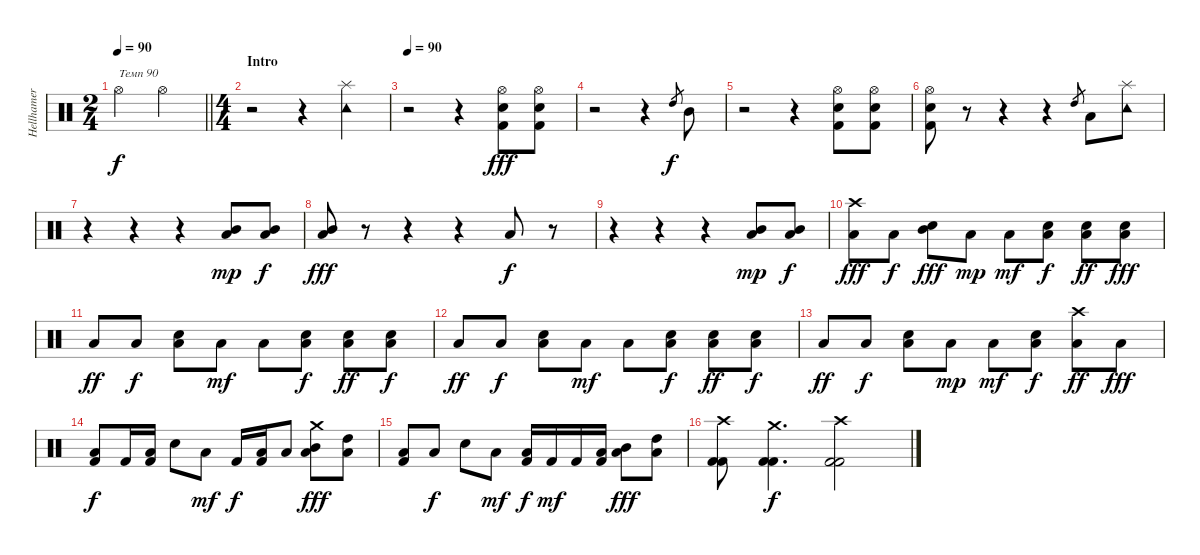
\track ("Hellhamer" "Hellhamer") {instrument percussion}
\staff {score}
\articulation defaults
\ts (2 4)
\tempo 90
\clef neutral
\barLineRight lightlight
\ks c "Hi-Hat (open)".4{txt "Темп 90" dy f} "Hi-Hat (open)".4
|
\ts (4 4)
\section ("" "Intro")
r.2 r.4 ("Splash (hit)" "Tambourine (hit)").4 |
\tempo 90
r.2 r.4 ("Hi-Hat (open)" "Electric Snare (hit)" "Kick (hit) 2").8{dy fff} ("Hi-Hat (open)" "Electric Snare (hit)" "Kick (hit) 2").8 |
r.2 r.4 "High Tom (hit)".8{gr dy f} "Mid Tom (hit)".8 |
r.2 r.4 ("Hi-Hat (open)" "Electric Snare (hit)" "Kick (hit) 2").8 ("Hi-Hat (open)" "Electric Snare (hit)" "Kick (hit) 2").8 |
("Hi-Hat (open)" "Electric Snare (hit)" "Kick (hit) 2").8 r.8 r.4 r.4 "High Tom (hit)".8{gr} "Low Tom (hit)".8 ("Splash (hit)" "Tambourine (hit)").8 |
r.4 r.4 r.4 ("Mid Tom (hit)" "Low Tom (hit)").8{dy mp} ("Mid Tom (hit)" "Low Tom (hit)").8{dy f} |
("Mid Tom (hit)" "Low Tom (hit)").8{dy fff} r.8 r.4 r.4 "Low Tom (hit)".8{dy f} r.8 |
r.4 r.4 r.4 ("Mid Tom (hit)" "Low Tom (hit)").8{dy mp} ("Mid Tom (hit)" "Low Tom (hit)").8{dy f} |
("Crash high (hit)" "Low Tom (hit)").8{dy fff} "Low Tom (hit)".8{dy f} ("Electric Snare (hit)" "Mid Tom (hit)").8{dy fff} "Low Tom (hit)".8{dy mp} "Low Tom (hit)".8{dy mf} ("Electric Snare (hit)" "Low Tom (hit)").8{dy f} ("Electric Snare (hit)" "Low Tom (hit)").8{dy ff} ("Electric Snare (hit)" "Low Tom (hit)").8{dy fff} |
"Low Tom (hit)".8{dy ff} "Low Tom (hit)".8{dy f} ("Electric Snare (hit)" "Low Tom (hit)").8 "Low Tom (hit)".8{dy mf} "Low Tom (hit)".8 ("Electric Snare (hit)" "Low Tom (hit)").8{dy f} ("Electric Snare (hit)" "Low Tom (hit)").8{dy ff} ("Electric Snare (hit)" "Low Tom (hit)").8{dy f} |
"Low Tom (hit)".8{dy ff} "Low Tom (hit)".8{dy f} ("Electric Snare (hit)" "Low Tom (hit)").8 "Low Tom (hit)".8{dy mf} "Low Tom (hit)".8 ("Electric Snare (hit)" "Low Tom (hit)").8{dy f} ("Electric Snare (hit)" "Low Tom (hit)").8{dy ff} ("Electric Snare (hit)" "Low Tom (hit)").8{dy f} |
"Low Tom (hit)".8{dy ff} "Low Tom (hit)".8{dy f} ("Electric Snare (hit)" "Low Tom (hit)").8 "Low Tom (hit)".8{dy mp} "Low Tom (hit)".8{dy mf} ("Electric Snare (hit)" "Low Tom (hit)").8{dy f} ("Crash high (hit)" "Low Tom (hit)").8{dy ff} "Low Tom (hit)".8{dy fff} |
("Low Tom (hit)" "Kick (hit) 2").8{dy f} "Kick (hit) 2".16 ("Low Tom (hit)" "Kick (hit) 2").16 "Electric Snare (hit)".8 "Low Tom (hit)".8{dy mf} "Kick (hit) 2".16{dy f} ("Low Tom (hit)" "Kick (hit) 2").16 "Low Tom (hit)".8 ("Crash medium (hit)" "Mid Tom (hit)" "Low Tom (hit)").8{dy fff} ("High Tom (hit)" "Low Tom (hit)").8 |
("Low Tom (hit)" "Kick (hit) 2").8 "Low Tom (hit)".8{dy f} "Electric Snare (hit)".8 "Low Tom (hit)".8{dy mf} ("Low Tom (hit)" "Kick (hit) 2").16{dy f} "Kick (hit) 2".16{dy mf} "Kick (hit) 2".16 ("Low Tom (hit)" "Kick (hit) 2").16 ("Mid Tom (hit)" "Low Tom (hit)").8{dy fff} ("High Tom (hit)" "Low Tom (hit)").8 |
("Crash high (hit)" "Kick (hit) 2" "Kick (hit) 2").8 ("Crash medium (hit)" "Kick (hit) 2" "Kick (hit) 2").4{d dy f} ("Crash high (hit)" "Kick (hit) 2" "Kick (hit) 2").2
